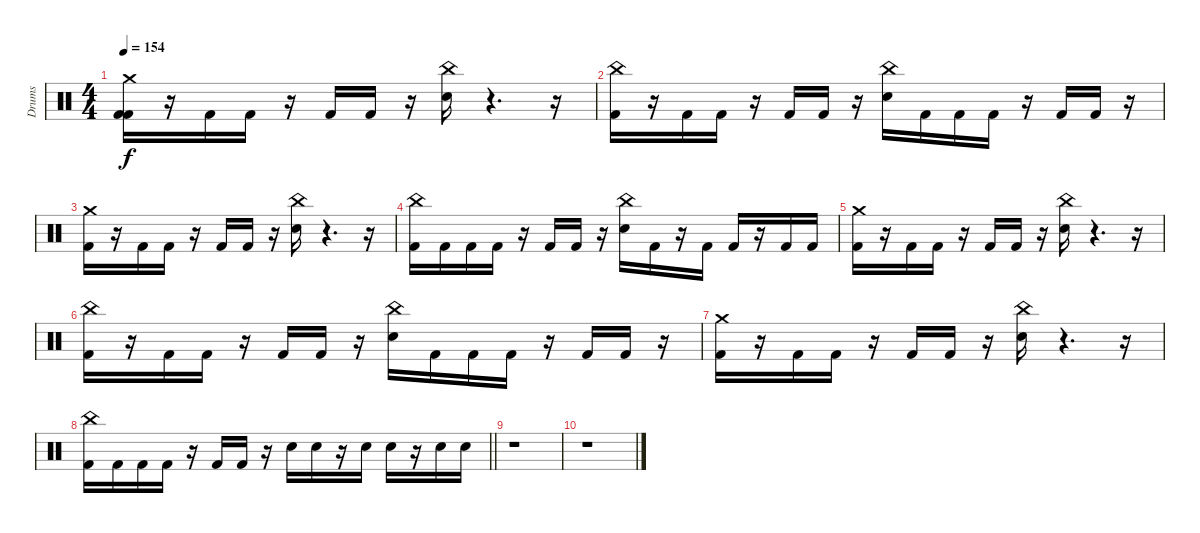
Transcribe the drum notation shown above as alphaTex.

\track ("Drums" "Drums") {instrument percussion}
\staff {score}
\articulation defaults
\ts (4 4)
\section ("" " ")
\tempo 154
\clef neutral
\ks c
("Kick (hit) 2" "Kick (hit) 2" "Crash medium (hit)").16{dy f} r.16 "Kick (hit) 2".16 "Kick (hit) 2".16 r.16 "Kick (hit) 2".16 "Kick (hit) 2".16 r.16 ("Snare (hit) 2" "China (hit)").16 r.4{d} r.16 |
("Kick (hit) 2" "China (hit)").16 r.16 "Kick (hit) 2".16 "Kick (hit) 2".16 r.16 "Kick (hit) 2".16 "Kick (hit) 2".16 r.16 ("Snare (hit) 2" "China (hit)").16 "Kick (hit) 2".16 "Kick (hit) 2".16 "Kick (hit) 2".16 r.16 "Kick (hit) 2".16 "Kick (hit) 2".16 r.16 |
("Kick (hit) 2" "Crash medium (hit)").16 r.16 "Kick (hit) 2".16 "Kick (hit) 2".16 r.16 "Kick (hit) 2".16 "Kick (hit) 2".16 r.16 ("Snare (hit) 2" "China (hit)").16 r.4{d} r.16 |
("Kick (hit) 2" "China (hit)").16 "Kick (hit) 2".16 "Kick (hit) 2".16 "Kick (hit) 2".16 r.16 "Kick (hit) 2".16 "Kick (hit) 2".16 r.16 ("Snare (hit) 2" "China (hit)").16 "Kick (hit) 2".16 r.16 "Kick (hit) 2".16 "Kick (hit) 2".16 r.16 "Kick (hit) 2".16 "Kick (hit) 2".16 |
("Kick (hit) 2" "Crash medium (hit)").16 r.16 "Kick (hit) 2".16 "Kick (hit) 2".16 r.16 "Kick (hit) 2".16 "Kick (hit) 2".16 r.16 ("Snare (hit) 2" "China (hit)").16 r.4{d} r.16 |
("Kick (hit) 2" "China (hit)").16 r.16 "Kick (hit) 2".16 "Kick (hit) 2".16 r.16 "Kick (hit) 2".16 "Kick (hit) 2".16 r.16 ("Snare (hit) 2" "China (hit)").16 "Kick (hit) 2".16 "Kick (hit) 2".16 "Kick (hit) 2".16 r.16 "Kick (hit) 2".16 "Kick (hit) 2".16 r.16 |
("Kick (hit) 2" "Crash medium (hit)").16 r.16 "Kick (hit) 2".16 "Kick (hit) 2".16 r.16 "Kick (hit) 2".16 "Kick (hit) 2".16 r.16 ("Snare (hit) 2" "China (hit)").16 r.4{d} r.16 |
\barLineRight lightlight
("Kick (hit) 2" "China (hit)").16 "Kick (hit) 2".16 "Kick (hit) 2".16 "Kick (hit) 2".16 r.16 "Kick (hit) 2".16 "Kick (hit) 2".16 r.16 "Snare (hit) 2".16 "Snare (hit) 2".16 r.16 "Snare (hit) 2".16 "Snare (hit) 2".16 r.16 "Snare (hit) 2".16 "Snare (hit) 2".16 |
\section ("" " ")
r.1 |
r.1
